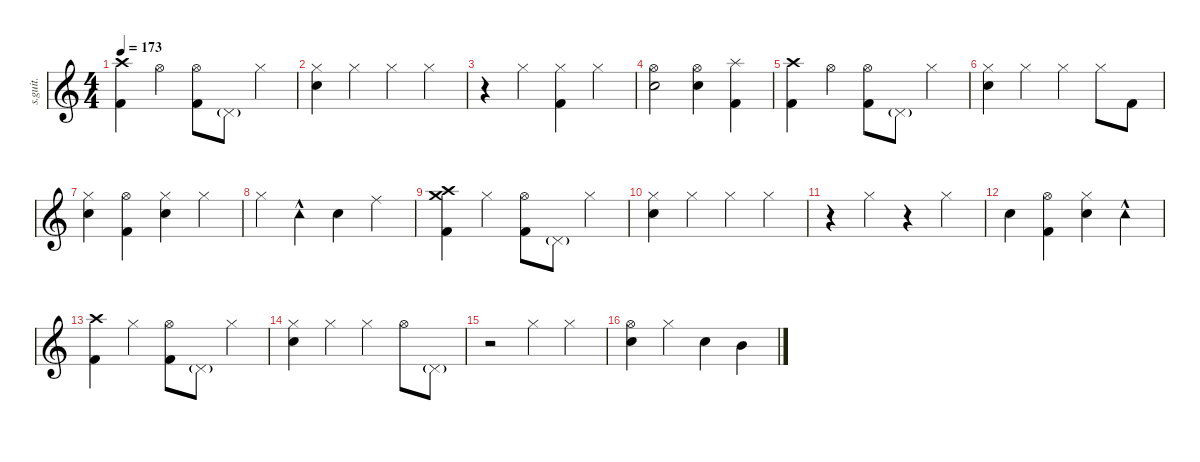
\defaultSystemsLayout 4
\hideDynamics
\bracketExtendMode nobrackets
\track ("II" "s.guit.") {instrument percussion}
\staff {score}
\articulation defaults
\ts (4 4)
\tempo 173
\clef g2
\ks c
("Kick (hit) 2" "Crash high (hit)").4{lyrics (0 "") lyrics (1 "") lyrics (2 "") lyrics (3 "") lyrics (4 "") dy mf} "Hi-Hat (open)".4{lyrics (0 "") lyrics (1 "") lyrics (2 "") lyrics (3 "") lyrics (4 "")} ("Hi-Hat (open)" "Kick (hit) 2").8{lyrics (0 "") lyrics (1 "") lyrics (2 "") lyrics (3 "") lyrics (4 "")} "Pedal Hi-Hat (hit)"{g}.8{lyrics (0 "") lyrics (1 "") lyrics (2 "") lyrics (3 "") lyrics (4 "") dy pp} "Hi-Hat (closed)".4{lyrics (0 "") lyrics (1 "") lyrics (2 "") lyrics (3 "") lyrics (4 "") dy mf} |
("Hi-Hat (closed)" "Snare (hit) 2").4{lyrics (0 "") lyrics (1 "") lyrics (2 "") lyrics (3 "") lyrics (4 "")} "Hi-Hat (closed)".4{lyrics (0 "") lyrics (1 "") lyrics (2 "") lyrics (3 "") lyrics (4 "")} "Hi-Hat (closed)".4{lyrics (0 "") lyrics (1 "") lyrics (2 "") lyrics (3 "") lyrics (4 "")} "Hi-Hat (closed)".4{lyrics (0 "") lyrics (1 "") lyrics (2 "") lyrics (3 "") lyrics (4 "")} |
r.4 "Hi-Hat (closed)".4{lyrics (0 "") lyrics (1 "") lyrics (2 "") lyrics (3 "") lyrics (4 "")} ("Kick (hit) 2" "Hi-Hat (closed)").4{lyrics (0 "") lyrics (1 "") lyrics (2 "") lyrics (3 "") lyrics (4 "")} "Hi-Hat (closed)".4{lyrics (0 "") lyrics (1 "") lyrics (2 "") lyrics (3 "") lyrics (4 "")} |
("Snare (hit) 2" "Hi-Hat (open)").2{lyrics (0 "") lyrics (1 "") lyrics (2 "") lyrics (3 "") lyrics (4 "")} ("Hi-Hat (open)" "Snare (hit) 2").4{lyrics (0 "") lyrics (1 "") lyrics (2 "") lyrics (3 "") lyrics (4 "")} ("Splash (hit)" "Kick (hit) 2").4{lyrics (0 "") lyrics (1 "") lyrics (2 "") lyrics (3 "") lyrics (4 "")} |
("Kick (hit) 2" "Crash high (hit)").4{lyrics (0 "") lyrics (1 "") lyrics (2 "") lyrics (3 "") lyrics (4 "")} "Hi-Hat (open)".4{lyrics (0 "") lyrics (1 "") lyrics (2 "") lyrics (3 "") lyrics (4 "")} ("Hi-Hat (open)" "Kick (hit) 2").8{lyrics (0 "") lyrics (1 "") lyrics (2 "") lyrics (3 "") lyrics (4 "")} "Pedal Hi-Hat (hit)"{g}.8{lyrics (0 "") lyrics (1 "") lyrics (2 "") lyrics (3 "") lyrics (4 "") dy pp} "Hi-Hat (closed)".4{lyrics (0 "") lyrics (1 "") lyrics (2 "") lyrics (3 "") lyrics (4 "") dy mf} |
("Hi-Hat (closed)" "Snare (hit) 2").4{lyrics (0 "") lyrics (1 "") lyrics (2 "") lyrics (3 "") lyrics (4 "")} "Hi-Hat (closed)".4{lyrics (0 "") lyrics (1 "") lyrics (2 "") lyrics (3 "") lyrics (4 "")} "Hi-Hat (closed)".4{lyrics (0 "") lyrics (1 "") lyrics (2 "") lyrics (3 "") lyrics (4 "")} "Hi-Hat (closed)".8{lyrics (0 "") lyrics (1 "") lyrics (2 "") lyrics (3 "") lyrics (4 "")} "Kick (hit) 2".8{lyrics (0 "") lyrics (1 "") lyrics (2 "") lyrics (3 "") lyrics (4 "")} |
("Snare (hit) 2" "Hi-Hat (closed)").4{lyrics (0 "") lyrics (1 "") lyrics (2 "") lyrics (3 "") lyrics (4 "")} ("Hi-Hat (open)" "Kick (hit) 2").4{lyrics (0 "") lyrics (1 "") lyrics (2 "") lyrics (3 "") lyrics (4 "")} ("Snare (hit) 2" "Hi-Hat (closed)").4{lyrics (0 "") lyrics (1 "") lyrics (2 "") lyrics (3 "") lyrics (4 "")} "Hi-Hat (closed)".4{lyrics (0 "") lyrics (1 "") lyrics (2 "") lyrics (3 "") lyrics (4 "")} |
"Hi-Hat (closed)".4{lyrics (0 "") lyrics (1 "") lyrics (2 "") lyrics (3 "") lyrics (4 "")} "Tambourine (hit)"{hac}.4{lyrics (0 "") lyrics (1 "") lyrics (2 "") lyrics (3 "") lyrics (4 "")} "Snare (hit) 2".4{lyrics (0 "") lyrics (1 "") lyrics (2 "") lyrics (3 "") lyrics (4 "")} "Ride (middle)".4{lyrics (0 "") lyrics (1 "") lyrics (2 "") lyrics (3 "") lyrics (4 "")} |
("Kick (hit) 2" "Crash medium (hit)" "Crash high (hit)").4{lyrics (0 "") lyrics (1 "") lyrics (2 "") lyrics (3 "") lyrics (4 "")} "Hi-Hat (closed)".4{lyrics (0 "") lyrics (1 "") lyrics (2 "") lyrics (3 "") lyrics (4 "")} ("Hi-Hat (open)" "Kick (hit) 2").8{lyrics (0 "") lyrics (1 "") lyrics (2 "") lyrics (3 "") lyrics (4 "")} "Pedal Hi-Hat (hit)"{g}.8{lyrics (0 "") lyrics (1 "") lyrics (2 "") lyrics (3 "") lyrics (4 "") dy pp} "Hi-Hat (closed)".4{lyrics (0 "") lyrics (1 "") lyrics (2 "") lyrics (3 "") lyrics (4 "") dy mf} |
("Hi-Hat (closed)" "Snare (hit) 2").4{lyrics (0 "") lyrics (1 "") lyrics (2 "") lyrics (3 "") lyrics (4 "")} "Hi-Hat (closed)".4{lyrics (0 "") lyrics (1 "") lyrics (2 "") lyrics (3 "") lyrics (4 "")} "Hi-Hat (closed)".4{lyrics (0 "") lyrics (1 "") lyrics (2 "") lyrics (3 "") lyrics (4 "")} "Hi-Hat (closed)".4{lyrics (0 "") lyrics (1 "") lyrics (2 "") lyrics (3 "") lyrics (4 "")} |
r.4 "Hi-Hat (closed)".4{lyrics (0 "") lyrics (1 "") lyrics (2 "") lyrics (3 "") lyrics (4 "")} r.4 "Hi-Hat (closed)".4{lyrics (0 "") lyrics (1 "") lyrics (2 "") lyrics (3 "") lyrics (4 "")} |
"Snare (hit) 2".4{lyrics (0 "") lyrics (1 "") lyrics (2 "") lyrics (3 "") lyrics (4 "")} ("Hi-Hat (open)" "Kick (hit) 2").4{lyrics (0 "") lyrics (1 "") lyrics (2 "") lyrics (3 "") lyrics (4 "")} ("Snare (hit) 2" "Hi-Hat (closed)").4{lyrics (0 "") lyrics (1 "") lyrics (2 "") lyrics (3 "") lyrics (4 "")} "Tambourine (hit)"{hac}.4{lyrics (0 "") lyrics (1 "") lyrics (2 "") lyrics (3 "") lyrics (4 "")} |
("Kick (hit) 2" "Crash high (hit)").4{lyrics (0 "") lyrics (1 "") lyrics (2 "") lyrics (3 "") lyrics (4 "")} "Hi-Hat (closed)".4{lyrics (0 "") lyrics (1 "") lyrics (2 "") lyrics (3 "") lyrics (4 "")} ("Hi-Hat (open)" "Kick (hit) 2").8{lyrics (0 "") lyrics (1 "") lyrics (2 "") lyrics (3 "") lyrics (4 "")} "Pedal Hi-Hat (hit)"{g}.8{lyrics (0 "") lyrics (1 "") lyrics (2 "") lyrics (3 "") lyrics (4 "") dy pp} "Hi-Hat (closed)".4{lyrics (0 "") lyrics (1 "") lyrics (2 "") lyrics (3 "") lyrics (4 "") dy mf} |
("Hi-Hat (closed)" "Snare (hit) 2").4{lyrics (0 "") lyrics (1 "") lyrics (2 "") lyrics (3 "") lyrics (4 "")} "Hi-Hat (closed)".4{lyrics (0 "") lyrics (1 "") lyrics (2 "") lyrics (3 "") lyrics (4 "")} "Hi-Hat (closed)".4{lyrics (0 "") lyrics (1 "") lyrics (2 "") lyrics (3 "") lyrics (4 "")} "Hi-Hat (open)".8{lyrics (0 "") lyrics (1 "") lyrics (2 "") lyrics (3 "") lyrics (4 "")} "Pedal Hi-Hat (hit)"{g}.8{lyrics (0 "") lyrics (1 "") lyrics (2 "") lyrics (3 "") lyrics (4 "") dy pp} |
r.2 "Hi-Hat (closed)".4{lyrics (0 "") lyrics (1 "") lyrics (2 "") lyrics (3 "") lyrics (4 "") dy mf} "Hi-Hat (closed)".4{lyrics (0 "") lyrics (1 "") lyrics (2 "") lyrics (3 "") lyrics (4 "")} |
("Hi-Hat (open)" "Snare (hit) 2").4{lyrics (0 "") lyrics (1 "") lyrics (2 "") lyrics (3 "") lyrics (4 "")} "Hi-Hat (closed)".4{lyrics (0 "") lyrics (1 "") lyrics (2 "") lyrics (3 "") lyrics (4 "")} "Snare (hit) 2".4{lyrics (0 "") lyrics (1 "") lyrics (2 "") lyrics (3 "") lyrics (4 "")} "Mid Tom (hit)".4{lyrics (0 "") lyrics (1 "") lyrics (2 "") lyrics (3 "") lyrics (4 "")}
